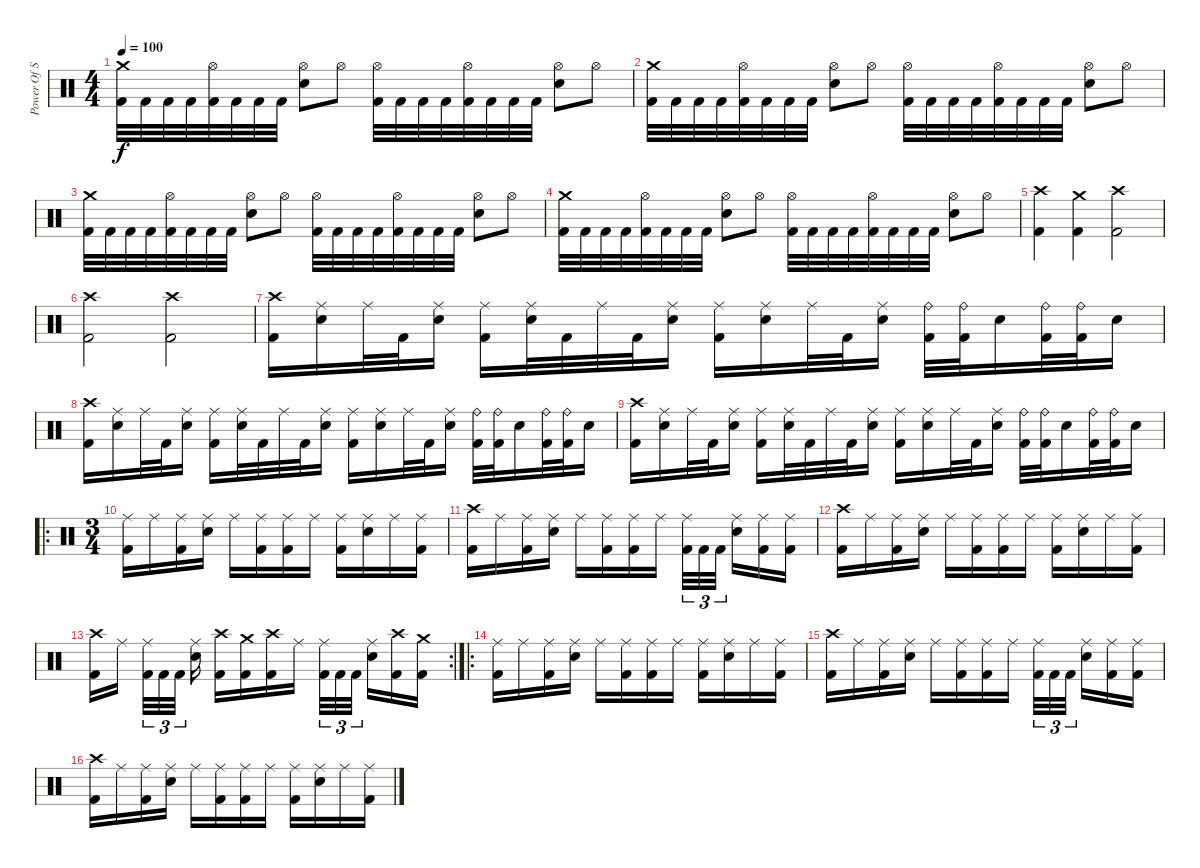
\track ("Power Of Steel" "Power Of S") {instrument percussion}
\staff {score}
\articulation defaults
\ts (4 4)
\tempo 100
\clef neutral
\ks c
("Crash medium (hit)" "Kick (hit) 2").32{dy f} "Kick (hit) 2".32 "Kick (hit) 2".32 "Kick (hit) 2".32 ("Hi-Hat (open)" "Kick (hit) 2").32 "Kick (hit) 2".32 "Kick (hit) 2".32 "Kick (hit) 2".32 ("Hi-Hat (open)" "Electric Snare (hit)").8 "Hi-Hat (open)".8 ("Hi-Hat (open)" "Kick (hit) 2").32 "Kick (hit) 2".32 "Kick (hit) 2".32 "Kick (hit) 2".32 ("Hi-Hat (open)" "Kick (hit) 2").32 "Kick (hit) 2".32 "Kick (hit) 2".32 "Kick (hit) 2".32 ("Hi-Hat (open)" "Electric Snare (hit)").8 "Hi-Hat (open)".8 |
("Crash medium (hit)" "Kick (hit) 2").32 "Kick (hit) 2".32 "Kick (hit) 2".32 "Kick (hit) 2".32 ("Hi-Hat (open)" "Kick (hit) 2").32 "Kick (hit) 2".32 "Kick (hit) 2".32 "Kick (hit) 2".32 ("Hi-Hat (open)" "Electric Snare (hit)").8 "Hi-Hat (open)".8 ("Hi-Hat (open)" "Kick (hit) 2").32 "Kick (hit) 2".32 "Kick (hit) 2".32 "Kick (hit) 2".32 ("Hi-Hat (open)" "Kick (hit) 2").32 "Kick (hit) 2".32 "Kick (hit) 2".32 "Kick (hit) 2".32 ("Hi-Hat (open)" "Electric Snare (hit)").8 "Hi-Hat (open)".8 |
("Crash medium (hit)" "Kick (hit) 2").32 "Kick (hit) 2".32 "Kick (hit) 2".32 "Kick (hit) 2".32 ("Hi-Hat (open)" "Kick (hit) 2").32 "Kick (hit) 2".32 "Kick (hit) 2".32 "Kick (hit) 2".32 ("Hi-Hat (open)" "Electric Snare (hit)").8 "Hi-Hat (open)".8 ("Hi-Hat (open)" "Kick (hit) 2").32 "Kick (hit) 2".32 "Kick (hit) 2".32 "Kick (hit) 2".32 ("Hi-Hat (open)" "Kick (hit) 2").32 "Kick (hit) 2".32 "Kick (hit) 2".32 "Kick (hit) 2".32 ("Hi-Hat (open)" "Electric Snare (hit)").8 "Hi-Hat (open)".8 |
("Crash medium (hit)" "Kick (hit) 2").32 "Kick (hit) 2".32 "Kick (hit) 2".32 "Kick (hit) 2".32 ("Hi-Hat (open)" "Kick (hit) 2").32 "Kick (hit) 2".32 "Kick (hit) 2".32 "Kick (hit) 2".32 ("Hi-Hat (open)" "Electric Snare (hit)").8 "Hi-Hat (open)".8 ("Hi-Hat (open)" "Kick (hit) 2").32 "Kick (hit) 2".32 "Kick (hit) 2".32 "Kick (hit) 2".32 ("Hi-Hat (open)" "Kick (hit) 2").32 "Kick (hit) 2".32 "Kick (hit) 2".32 "Kick (hit) 2".32 ("Hi-Hat (open)" "Electric Snare (hit)").8 "Hi-Hat (open)".8 |
("Crash high (hit)" "Kick (hit) 2").4 ("Crash medium (hit)" "Kick (hit) 2").4 ("Crash high (hit)" "Kick (hit) 2").2 |
("Crash high (hit)" "Kick (hit) 2").2 ("Crash high (hit)" "Kick (hit) 2").2 |
("Crash high (hit)" "Kick (hit) 2").16 ("Ride (middle)" "Electric Snare (hit)").16 "Ride (middle)".32 "Kick (hit) 2".32 ("Ride (middle)" "Electric Snare (hit)").16 ("Ride (middle)" "Kick (hit) 2").16 ("Ride (middle)" "Electric Snare (hit)").32 "Kick (hit) 2".32 "Ride (middle)".32 "Kick (hit) 2".32 ("Ride (middle)" "Electric Snare (hit)").16 ("Ride (middle)" "Kick (hit) 2").16 ("Ride (middle)" "Electric Snare (hit)").16 "Ride (middle)".32 "Kick (hit) 2".32 ("Ride (middle)" "Electric Snare (hit)").16 ("Ride (bell)" "Kick (hit) 2").32 ("Ride (bell)" "Kick (hit) 2").32 "Electric Snare (hit)".16 ("Ride (bell)" "Kick (hit) 2").32 ("Ride (bell)" "Kick (hit) 2").32 "Electric Snare (hit)".16 |
("Crash high (hit)" "Kick (hit) 2").16 ("Ride (middle)" "Electric Snare (hit)").16 "Ride (middle)".32 "Kick (hit) 2".32 ("Ride (middle)" "Electric Snare (hit)").16 ("Ride (middle)" "Kick (hit) 2").16 ("Ride (middle)" "Electric Snare (hit)").32 "Kick (hit) 2".32 "Ride (middle)".32 "Kick (hit) 2".32 ("Ride (middle)" "Electric Snare (hit)").16 ("Ride (middle)" "Kick (hit) 2").16 ("Ride (middle)" "Electric Snare (hit)").16 "Ride (middle)".32 "Kick (hit) 2".32 ("Ride (middle)" "Electric Snare (hit)").16 ("Ride (bell)" "Kick (hit) 2").32 ("Ride (bell)" "Kick (hit) 2").32 "Electric Snare (hit)".16 ("Ride (bell)" "Kick (hit) 2").32 ("Ride (bell)" "Kick (hit) 2").32 "Electric Snare (hit)".16 |
("Crash high (hit)" "Kick (hit) 2").16 ("Ride (middle)" "Electric Snare (hit)").16 "Ride (middle)".32 "Kick (hit) 2".32 ("Ride (middle)" "Electric Snare (hit)").16 ("Ride (middle)" "Kick (hit) 2").16 ("Ride (middle)" "Electric Snare (hit)").32 "Kick (hit) 2".32 "Ride (middle)".32 "Kick (hit) 2".32 ("Ride (middle)" "Electric Snare (hit)").16 ("Ride (middle)" "Kick (hit) 2").16 ("Ride (middle)" "Electric Snare (hit)").16 "Ride (middle)".32 "Kick (hit) 2".32 ("Ride (middle)" "Electric Snare (hit)").16 ("Ride (bell)" "Kick (hit) 2").32 ("Ride (bell)" "Kick (hit) 2").32 "Electric Snare (hit)".16 ("Ride (bell)" "Kick (hit) 2").32 ("Ride (bell)" "Kick (hit) 2").32 "Electric Snare (hit)".16 |
\ro
\ts (3 4)
("Ride (middle)" "Kick (hit) 2").16 "Ride (middle)".16 ("Ride (middle)" "Kick (hit) 2").16 ("Ride (middle)" "Electric Snare (hit)").16 "Ride (middle)".16 ("Ride (middle)" "Kick (hit) 2").16 ("Ride (middle)" "Kick (hit) 2").16 "Ride (middle)".16 ("Ride (middle)" "Kick (hit) 2").16 ("Ride (middle)" "Electric Snare (hit)").16 "Ride (middle)".16 ("Ride (middle)" "Kick (hit) 2").16 |
("Crash high (hit)" "Kick (hit) 2").16 "Ride (middle)".16 ("Ride (middle)" "Kick (hit) 2").16 ("Ride (middle)" "Electric Snare (hit)").16 "Ride (middle)".16 ("Ride (middle)" "Kick (hit) 2").16 ("Ride (middle)" "Kick (hit) 2").16 "Ride (middle)".16 ("Ride (middle)" "Kick (hit) 2").32{tu (3 2)} "Kick (hit) 2".32{tu (3 2)} "Kick (hit) 2".32{tu (3 2)} ("Ride (middle)" "Electric Snare (hit)").16 ("Ride (middle)" "Kick (hit) 2").16 ("Ride (middle)" "Kick (hit) 2").16 |
("Crash high (hit)" "Kick (hit) 2").16 "Ride (middle)".16 ("Ride (middle)" "Kick (hit) 2").16 ("Ride (middle)" "Electric Snare (hit)").16 "Ride (middle)".16 ("Ride (middle)" "Kick (hit) 2").16 ("Ride (middle)" "Kick (hit) 2").16 "Ride (middle)".16 ("Ride (middle)" "Kick (hit) 2").16 ("Ride (middle)" "Electric Snare (hit)").16 "Ride (middle)".16 ("Ride (middle)" "Kick (hit) 2").16 |
\rc 2
("Crash high (hit)" "Kick (hit) 2").16 "Ride (middle)".16 ("Ride (middle)" "Kick (hit) 2").32{tu (3 2)} "Kick (hit) 2".32{tu (3 2)} "Kick (hit) 2".32{tu (3 2)} ("Ride (middle)" "Electric Snare (hit)").16 ("Crash high (hit)" "Kick (hit) 2").16 ("Crash medium (hit)" "Kick (hit) 2").16 ("Crash high (hit)" "Kick (hit) 2").16 "Ride (middle)".16 ("Ride (middle)" "Kick (hit) 2").32{tu (3 2)} "Kick (hit) 2".32{tu (3 2)} "Kick (hit) 2".32{tu (3 2)} ("Ride (middle)" "Electric Snare (hit)").16 ("Crash high (hit)" "Kick (hit) 2").16 ("Crash medium (hit)" "Kick (hit) 2").16 |
\ro
("Ride (middle)" "Kick (hit) 2").16 "Ride (middle)".16 ("Ride (middle)" "Kick (hit) 2").16 ("Ride (middle)" "Electric Snare (hit)").16 "Ride (middle)".16 ("Ride (middle)" "Kick (hit) 2").16 ("Ride (middle)" "Kick (hit) 2").16 "Ride (middle)".16 ("Ride (middle)" "Kick (hit) 2").16 ("Ride (middle)" "Electric Snare (hit)").16 "Ride (middle)".16 ("Ride (middle)" "Kick (hit) 2").16 |
("Crash high (hit)" "Kick (hit) 2").16 "Ride (middle)".16 ("Ride (middle)" "Kick (hit) 2").16 ("Ride (middle)" "Electric Snare (hit)").16 "Ride (middle)".16 ("Ride (middle)" "Kick (hit) 2").16 ("Ride (middle)" "Kick (hit) 2").16 "Ride (middle)".16 ("Ride (middle)" "Kick (hit) 2").32{tu (3 2)} "Kick (hit) 2".32{tu (3 2)} "Kick (hit) 2".32{tu (3 2)} ("Ride (middle)" "Electric Snare (hit)").16 ("Ride (middle)" "Kick (hit) 2").16 ("Ride (middle)" "Kick (hit) 2").16 |
("Crash high (hit)" "Kick (hit) 2").16 "Ride (middle)".16 ("Ride (middle)" "Kick (hit) 2").16 ("Ride (middle)" "Electric Snare (hit)").16 "Ride (middle)".16 ("Ride (middle)" "Kick (hit) 2").16 ("Ride (middle)" "Kick (hit) 2").16 "Ride (middle)".16 ("Ride (middle)" "Kick (hit) 2").16 ("Ride (middle)" "Electric Snare (hit)").16 "Ride (middle)".16 ("Ride (middle)" "Kick (hit) 2").16
